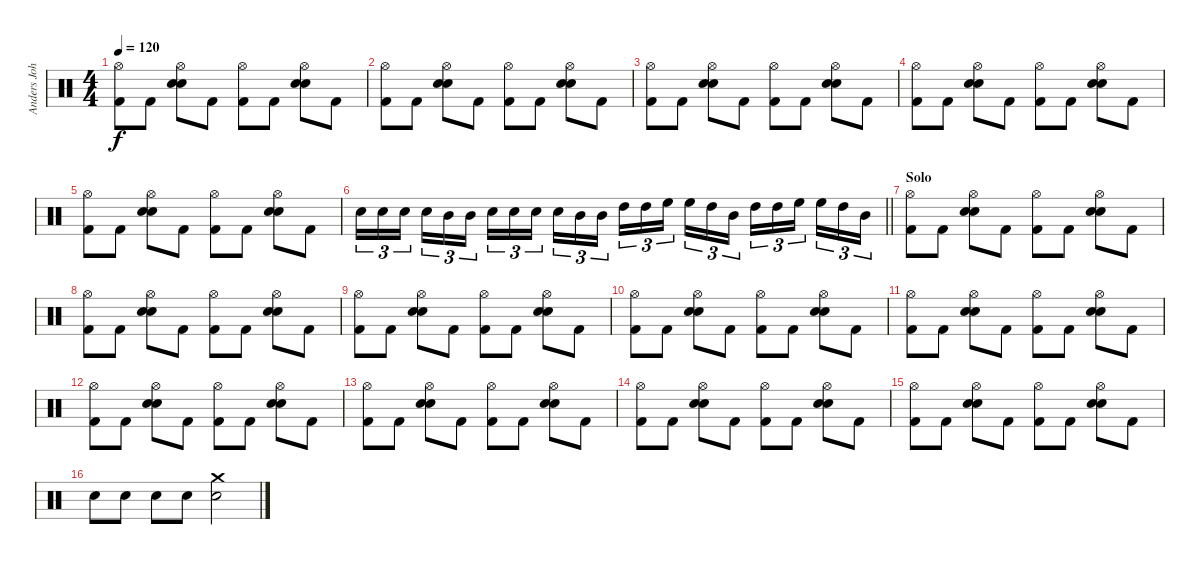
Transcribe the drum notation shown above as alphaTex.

\track ("Anders Johansson" "Anders Joh") {instrument percussion}
\staff {score}
\articulation defaults
\ts (4 4)
\tempo 120
\clef neutral
\ks c
("Hi-Hat (open)" "Kick (hit) 2").8{dy f} "Kick (hit) 2".8 ("Hi-Hat (open)" "Electric Snare (hit)" "Snare (hit) 2").8 "Kick (hit) 2".8 ("Hi-Hat (open)" "Kick (hit) 2").8 "Kick (hit) 2".8 ("Hi-Hat (open)" "Electric Snare (hit)" "Snare (hit) 2").8 "Kick (hit) 2".8 |
("Hi-Hat (open)" "Kick (hit) 2").8 "Kick (hit) 2".8 ("Hi-Hat (open)" "Electric Snare (hit)" "Snare (hit) 2").8 "Kick (hit) 2".8 ("Hi-Hat (open)" "Kick (hit) 2").8 "Kick (hit) 2".8 ("Hi-Hat (open)" "Electric Snare (hit)" "Snare (hit) 2").8 "Kick (hit) 2".8 |
("Hi-Hat (open)" "Kick (hit) 2").8 "Kick (hit) 2".8 ("Hi-Hat (open)" "Electric Snare (hit)" "Snare (hit) 2").8 "Kick (hit) 2".8 ("Hi-Hat (open)" "Kick (hit) 2").8 "Kick (hit) 2".8 ("Hi-Hat (open)" "Electric Snare (hit)" "Snare (hit) 2").8 "Kick (hit) 2".8 |
("Hi-Hat (open)" "Kick (hit) 2").8 "Kick (hit) 2".8 ("Hi-Hat (open)" "Electric Snare (hit)" "Snare (hit) 2").8 "Kick (hit) 2".8 ("Hi-Hat (open)" "Kick (hit) 2").8 "Kick (hit) 2".8 ("Hi-Hat (open)" "Electric Snare (hit)" "Snare (hit) 2").8 "Kick (hit) 2".8 |
("Hi-Hat (open)" "Kick (hit) 2").8 "Kick (hit) 2".8 ("Hi-Hat (open)" "Electric Snare (hit)" "Snare (hit) 2").8 "Kick (hit) 2".8 ("Hi-Hat (open)" "Kick (hit) 2").8 "Kick (hit) 2".8 ("Hi-Hat (open)" "Electric Snare (hit)" "Snare (hit) 2").8 "Kick (hit) 2".8 |
\barLineRight lightlight "Snare (hit) 2".16{tu (3 2)} "Snare (hit) 2".16{tu (3 2)} "Electric Snare (hit)".16{tu (3 2) beam splitsecondary} "Electric Snare (hit)".16{tu (3 2)} "Mid Tom (hit)".16{tu (3 2)} "Mid Tom (hit)".16{tu (3 2)} "Snare (hit) 2".16{tu (3 2)} "Snare (hit) 2".16{tu (3 2)} "Electric Snare (hit)".16{tu (3 2) beam splitsecondary} "Electric Snare (hit)".16{tu (3 2)} "Mid Tom (hit)".16{tu (3 2)} "Mid Tom (hit)".16{tu (3 2)} "High Tom (hit)".16{tu (3 2)} "High Tom (hit)".16{tu (3 2)} "High Floor Tom (hit)".16{tu (3 2) beam splitsecondary} "High Floor Tom (hit)".16{tu (3 2)} "High Tom (hit)".16{tu (3 2)} "Mid Tom (hit)".16{tu (3 2)} "High Tom (hit)".16{tu (3 2)} "High Tom (hit)".16{tu (3 2)} "High Floor Tom (hit)".16{tu (3 2) beam splitsecondary} "High Floor Tom (hit)".16{tu (3 2)} "High Tom (hit)".16{tu (3 2)} "Mid Tom (hit)".16{tu (3 2)}
|
\section ("" "Solo")
("Hi-Hat (open)" "Kick (hit) 2").8 "Kick (hit) 2".8 ("Hi-Hat (open)" "Electric Snare (hit)" "Snare (hit) 2").8 "Kick (hit) 2".8 ("Hi-Hat (open)" "Kick (hit) 2").8 "Kick (hit) 2".8 ("Hi-Hat (open)" "Electric Snare (hit)" "Snare (hit) 2").8 "Kick (hit) 2".8 |
("Hi-Hat (open)" "Kick (hit) 2").8 "Kick (hit) 2".8 ("Hi-Hat (open)" "Electric Snare (hit)" "Snare (hit) 2").8 "Kick (hit) 2".8 ("Hi-Hat (open)" "Kick (hit) 2").8 "Kick (hit) 2".8 ("Hi-Hat (open)" "Electric Snare (hit)" "Snare (hit) 2").8 "Kick (hit) 2".8 |
("Hi-Hat (open)" "Kick (hit) 2").8 "Kick (hit) 2".8 ("Hi-Hat (open)" "Electric Snare (hit)" "Snare (hit) 2").8 "Kick (hit) 2".8 ("Hi-Hat (open)" "Kick (hit) 2").8 "Kick (hit) 2".8 ("Hi-Hat (open)" "Electric Snare (hit)" "Snare (hit) 2").8 "Kick (hit) 2".8 |
("Hi-Hat (open)" "Kick (hit) 2").8 "Kick (hit) 2".8 ("Hi-Hat (open)" "Electric Snare (hit)" "Snare (hit) 2").8 "Kick (hit) 2".8 ("Hi-Hat (open)" "Kick (hit) 2").8 "Kick (hit) 2".8 ("Hi-Hat (open)" "Electric Snare (hit)" "Snare (hit) 2").8 "Kick (hit) 2".8 |
("Hi-Hat (open)" "Kick (hit) 2").8 "Kick (hit) 2".8 ("Hi-Hat (open)" "Electric Snare (hit)" "Snare (hit) 2").8 "Kick (hit) 2".8 ("Hi-Hat (open)" "Kick (hit) 2").8 "Kick (hit) 2".8 ("Hi-Hat (open)" "Electric Snare (hit)" "Snare (hit) 2").8 "Kick (hit) 2".8 |
("Hi-Hat (open)" "Kick (hit) 2").8 "Kick (hit) 2".8 ("Hi-Hat (open)" "Electric Snare (hit)" "Snare (hit) 2").8 "Kick (hit) 2".8 ("Hi-Hat (open)" "Kick (hit) 2").8 "Kick (hit) 2".8 ("Hi-Hat (open)" "Electric Snare (hit)" "Snare (hit) 2").8 "Kick (hit) 2".8 |
("Hi-Hat (open)" "Kick (hit) 2").8 "Kick (hit) 2".8 ("Hi-Hat (open)" "Electric Snare (hit)" "Snare (hit) 2").8 "Kick (hit) 2".8 ("Hi-Hat (open)" "Kick (hit) 2").8 "Kick (hit) 2".8 ("Hi-Hat (open)" "Electric Snare (hit)" "Snare (hit) 2").8 "Kick (hit) 2".8 |
("Hi-Hat (open)" "Kick (hit) 2").8 "Kick (hit) 2".8 ("Hi-Hat (open)" "Electric Snare (hit)" "Snare (hit) 2").8 "Kick (hit) 2".8 ("Hi-Hat (open)" "Kick (hit) 2").8 "Kick (hit) 2".8 ("Hi-Hat (open)" "Electric Snare (hit)" "Snare (hit) 2").8 "Kick (hit) 2".8 |
("Hi-Hat (open)" "Kick (hit) 2").8 "Kick (hit) 2".8 ("Hi-Hat (open)" "Electric Snare (hit)" "Snare (hit) 2").8 "Kick (hit) 2".8 ("Hi-Hat (open)" "Kick (hit) 2").8 "Kick (hit) 2".8 ("Hi-Hat (open)" "Electric Snare (hit)" "Snare (hit) 2").8 "Kick (hit) 2".8 |
"Electric Snare (hit)".8 "Electric Snare (hit)".8 "Electric Snare (hit)".8 "Electric Snare (hit)".8 ("Crash medium (hit)" "Electric Snare (hit)").2
